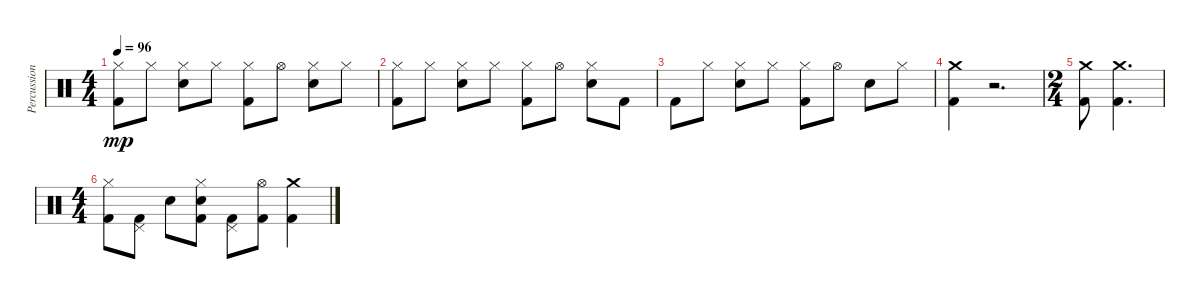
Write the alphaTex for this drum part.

\track ("Percussion" "Percussion") {instrument percussion}
\staff {score}
\articulation defaults
\ts (4 4)
\tempo 96
\clef neutral
\ks c
("Hi-Hat (closed)" "Kick (hit) 2").8{dy mp} "Hi-Hat (closed)".8 ("Hi-Hat (closed)" "Snare (hit) 2").8 "Hi-Hat (closed)".8 ("Hi-Hat (closed)" "Kick (hit) 2").8 "Hi-Hat (open)".8 ("Hi-Hat (closed)" "Snare (hit) 2").8 "Hi-Hat (closed)".8 |
("Hi-Hat (closed)" "Kick (hit) 2").8 "Hi-Hat (closed)".8 ("Hi-Hat (closed)" "Snare (hit) 2").8 "Hi-Hat (closed)".8 ("Hi-Hat (closed)" "Kick (hit) 2").8 "Hi-Hat (open)".8 ("Hi-Hat (closed)" "Snare (hit) 2").8 "Kick (hit) 2".8 |
"Kick (hit) 2".8 "Hi-Hat (closed)".8 ("Hi-Hat (closed)" "Snare (hit) 2").8 "Hi-Hat (closed)".8 ("Hi-Hat (closed)" "Kick (hit) 2").8 "Hi-Hat (open)".8 "Snare (hit) 2".8 "Hi-Hat (closed)".8 |
("Crash medium (hit)" "Kick (hit) 2").4 r.2{d} |
\ts (2 4)
("Crash medium (hit)" "Kick (hit) 2").8 ("Crash medium (hit)" "Kick (hit) 2").4{d} |
\ts (4 4)
("Hi-Hat (closed)" "Kick (hit) 2").8 ("Pedal Hi-Hat (hit)" "Kick (hit) 2").8 "Snare (hit) 2".8 ("Hi-Hat (closed)" "Kick (hit) 2" "Snare (hit) 2").8 ("Pedal Hi-Hat (hit)" "Kick (hit) 2").8 ("Hi-Hat (open)" "Kick (hit) 2").8 ("Crash medium (hit)" "Kick (hit) 2").4
